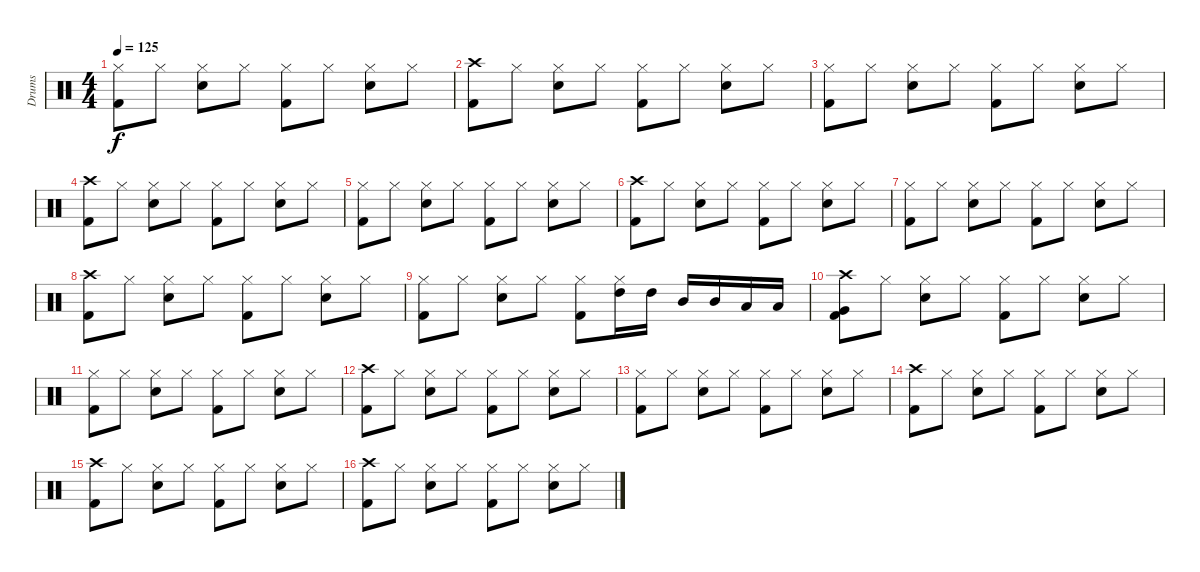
\track ("Drums" "Drums") {instrument percussion}
\staff {score}
\articulation defaults
\ts (4 4)
\tempo 125
\clef neutral
\ks c
("Hi-Hat (closed)" "Kick (hit) 2").8{dy f} "Hi-Hat (closed)".8 ("Hi-Hat (closed)" "Electric Snare (hit)").8 "Hi-Hat (closed)".8 ("Hi-Hat (closed)" "Kick (hit) 2").8 "Hi-Hat (closed)".8 ("Hi-Hat (closed)" "Electric Snare (hit)").8 "Hi-Hat (closed)".8 |
("Crash high (hit)" "Kick (hit) 2").8 "Hi-Hat (closed)".8 ("Hi-Hat (closed)" "Electric Snare (hit)").8 "Hi-Hat (closed)".8 ("Hi-Hat (closed)" "Kick (hit) 2").8 "Hi-Hat (closed)".8 ("Hi-Hat (closed)" "Electric Snare (hit)").8 "Hi-Hat (closed)".8 |
("Hi-Hat (closed)" "Kick (hit) 2").8 "Hi-Hat (closed)".8 ("Hi-Hat (closed)" "Electric Snare (hit)").8 "Hi-Hat (closed)".8 ("Hi-Hat (closed)" "Kick (hit) 2").8 "Hi-Hat (closed)".8 ("Hi-Hat (closed)" "Electric Snare (hit)").8 "Hi-Hat (closed)".8 |
("Crash high (hit)" "Kick (hit) 2").8 "Hi-Hat (closed)".8 ("Hi-Hat (closed)" "Electric Snare (hit)").8 "Hi-Hat (closed)".8 ("Hi-Hat (closed)" "Kick (hit) 2").8 "Hi-Hat (closed)".8 ("Hi-Hat (closed)" "Electric Snare (hit)").8 "Hi-Hat (closed)".8 |
("Hi-Hat (closed)" "Kick (hit) 2").8 "Hi-Hat (closed)".8 ("Hi-Hat (closed)" "Electric Snare (hit)").8 "Hi-Hat (closed)".8 ("Hi-Hat (closed)" "Kick (hit) 2").8 "Hi-Hat (closed)".8 ("Hi-Hat (closed)" "Electric Snare (hit)").8 "Hi-Hat (closed)".8 |
("Crash high (hit)" "Kick (hit) 2").8 "Hi-Hat (closed)".8 ("Hi-Hat (closed)" "Electric Snare (hit)").8 "Hi-Hat (closed)".8 ("Hi-Hat (closed)" "Kick (hit) 2").8 "Hi-Hat (closed)".8 ("Hi-Hat (closed)" "Electric Snare (hit)").8 "Hi-Hat (closed)".8 |
("Hi-Hat (closed)" "Kick (hit) 2").8 "Hi-Hat (closed)".8 ("Hi-Hat (closed)" "Electric Snare (hit)").8 "Hi-Hat (closed)".8 ("Hi-Hat (closed)" "Kick (hit) 2").8 "Hi-Hat (closed)".8 ("Hi-Hat (closed)" "Electric Snare (hit)").8 "Hi-Hat (closed)".8 |
("Crash high (hit)" "Kick (hit) 2").8 "Hi-Hat (closed)".8 ("Hi-Hat (closed)" "Electric Snare (hit)").8 "Hi-Hat (closed)".8 ("Hi-Hat (closed)" "Kick (hit) 2").8 "Hi-Hat (closed)".8 ("Hi-Hat (closed)" "Electric Snare (hit)").8 "Hi-Hat (closed)".8 |
("Hi-Hat (closed)" "Kick (hit) 2").8 "Hi-Hat (closed)".8 ("Hi-Hat (closed)" "Electric Snare (hit)").8 "Hi-Hat (closed)".8 ("Hi-Hat (closed)" "Kick (hit) 2").8 ("Hi-Hat (closed)" "High Tom (hit)").16 "High Tom (hit)".16 "Mid Tom (hit)".16 "Mid Tom (hit)".16 "Low Tom (hit)".16 "Low Tom (hit)".16 |
("Crash high (hit)" "Very Low Tom (hit)" "Kick (hit) 2").8 "Hi-Hat (closed)".8 ("Hi-Hat (closed)" "Electric Snare (hit)").8 "Hi-Hat (closed)".8 ("Hi-Hat (closed)" "Kick (hit) 2").8 "Hi-Hat (closed)".8 ("Hi-Hat (closed)" "Electric Snare (hit)").8 "Hi-Hat (closed)".8 |
("Hi-Hat (closed)" "Kick (hit) 2").8 "Hi-Hat (closed)".8 ("Hi-Hat (closed)" "Electric Snare (hit)").8 "Hi-Hat (closed)".8 ("Hi-Hat (closed)" "Kick (hit) 2").8 "Hi-Hat (closed)".8 ("Hi-Hat (closed)" "Electric Snare (hit)").8 "Hi-Hat (closed)".8 |
("Crash high (hit)" "Kick (hit) 2").8 "Hi-Hat (closed)".8 ("Hi-Hat (closed)" "Electric Snare (hit)").8 "Hi-Hat (closed)".8 ("Hi-Hat (closed)" "Kick (hit) 2").8 "Hi-Hat (closed)".8 ("Hi-Hat (closed)" "Electric Snare (hit)").8 "Hi-Hat (closed)".8 |
("Hi-Hat (closed)" "Kick (hit) 2").8 "Hi-Hat (closed)".8 ("Hi-Hat (closed)" "Electric Snare (hit)").8 "Hi-Hat (closed)".8 ("Hi-Hat (closed)" "Kick (hit) 2").8 "Hi-Hat (closed)".8 ("Hi-Hat (closed)" "Electric Snare (hit)").8 "Hi-Hat (closed)".8 |
("Crash high (hit)" "Kick (hit) 2").8 "Hi-Hat (closed)".8 ("Hi-Hat (closed)" "Electric Snare (hit)").8 "Hi-Hat (closed)".8 ("Hi-Hat (closed)" "Kick (hit) 2").8 "Hi-Hat (closed)".8 ("Hi-Hat (closed)" "Electric Snare (hit)").8 "Hi-Hat (closed)".8 |
("Crash high (hit)" "Kick (hit) 2").8 "Hi-Hat (closed)".8 ("Hi-Hat (closed)" "Electric Snare (hit)").8 "Hi-Hat (closed)".8 ("Hi-Hat (closed)" "Kick (hit) 2").8 "Hi-Hat (closed)".8 ("Hi-Hat (closed)" "Electric Snare (hit)").8 "Hi-Hat (closed)".8 |
("Crash high (hit)" "Kick (hit) 2").8 "Hi-Hat (closed)".8 ("Hi-Hat (closed)" "Electric Snare (hit)").8 "Hi-Hat (closed)".8 ("Hi-Hat (closed)" "Kick (hit) 2").8 "Hi-Hat (closed)".8 ("Hi-Hat (closed)" "Electric Snare (hit)").8 "Hi-Hat (closed)".8
